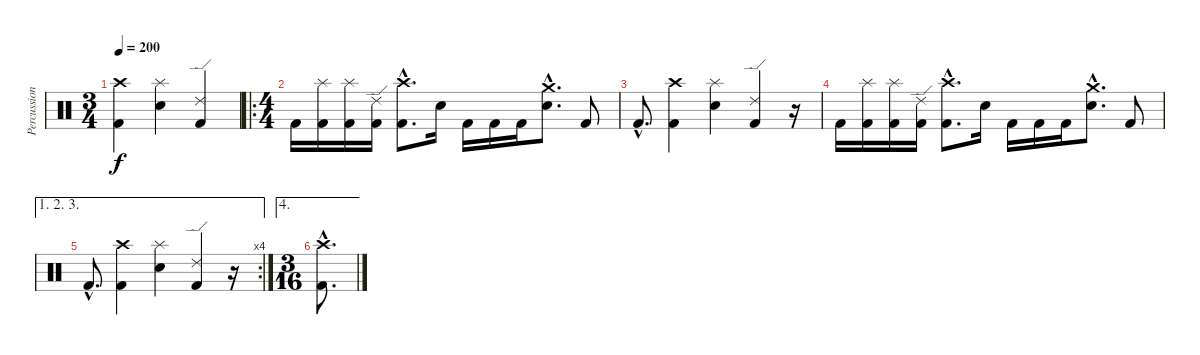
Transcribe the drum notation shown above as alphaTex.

\track ("Percussion" "Percussion") {instrument percussion}
\staff {score}
\articulation defaults
\ts (3 4)
\tempo 200
\clef neutral
\ks c
("Crash high (hit)" "Kick (hit) 2").4{dy f} ("Splash (hit)" "Snare (hit) 2").4 ("Ride (edge) 2" "Kick (hit) 2").4 |
\ro
\ts (4 4)
"Kick (hit) 2".16 ("Splash (hit)" "Kick (hit) 2").16 ("Splash (hit)" "Kick (hit) 2").16 ("Ride (edge) 2" "Kick (hit) 2").16 ("Crash high (hit)"{hac} "Kick (hit) 2"{hac}).8{d} "Snare (hit) 2".16 "Kick (hit) 2".16 "Kick (hit) 2".16 "Kick (hit) 2".16 ("Crash medium (hit)"{hac} "Snare (hit) 2"{hac}).8{d} "Kick (hit) 2".8 |
"Kick (hit) 2"{hac}.8{d} ("Crash high (hit)" "Kick (hit) 2").4 ("Splash (hit)" "Snare (hit) 2").4 ("Ride (edge) 2" "Kick (hit) 2").4 r.16 |
"Kick (hit) 2".16 ("Splash (hit)" "Kick (hit) 2").16 ("Splash (hit)" "Kick (hit) 2").16 ("Ride (edge) 2" "Kick (hit) 2").16 ("Crash high (hit)"{hac} "Kick (hit) 2"{hac}).8{d} "Snare (hit) 2".16 "Kick (hit) 2".16 "Kick (hit) 2".16 "Kick (hit) 2".16 ("Crash medium (hit)"{hac} "Snare (hit) 2"{hac}).8{d} "Kick (hit) 2".8 |
\ae (1 2 3)
\rc 4 "Kick (hit) 2"{hac}.8{d}
("Crash high (hit)" "Kick (hit) 2").4 ("Splash (hit)" "Snare (hit) 2").4 ("Ride (edge) 2" "Kick (hit) 2").4 r.16 |
\ae 4
\ts (3 16)
("Crash high (hit)"{hac} "Kick (hit) 2"{hac}).8{d}
